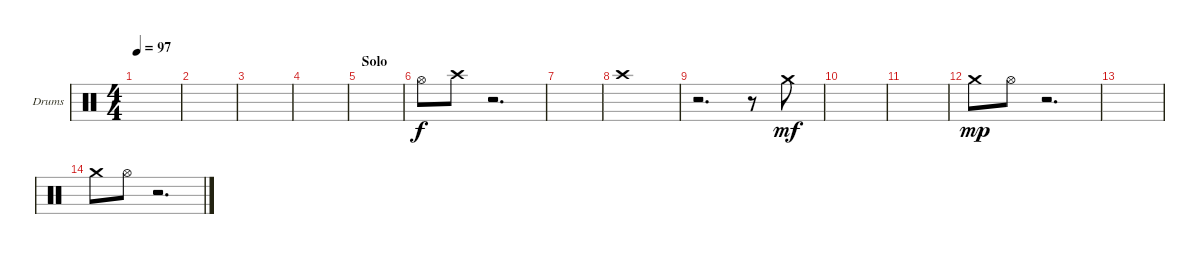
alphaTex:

\bracketExtendMode groupsimilarinstruments
\firstSystemTrackNameOrientation horizontal
\otherSystemsTrackNameOrientation horizontal
\track ("OH" "Drums") {instrument percussion}
\staff {score}
\articulation defaults
\ts (4 4)
\tempo 97
\clef neutral
\ks c
|
|
|
|
\section ("" "Solo")
|
"Hi-Hat (open)".8 "Crash high (hit)".8 r.2{d} |
|
"Crash high (hit)".1 |
r.2{d} r.8 "Crash medium (hit)".8{dy mf} |
|
|
"Crash medium (hit)".8{dy mp} "Hi-Hat (open)".8 r.2{d} |
|
"Crash medium (hit)".8 "Hi-Hat (open)".8 r.2{d}
